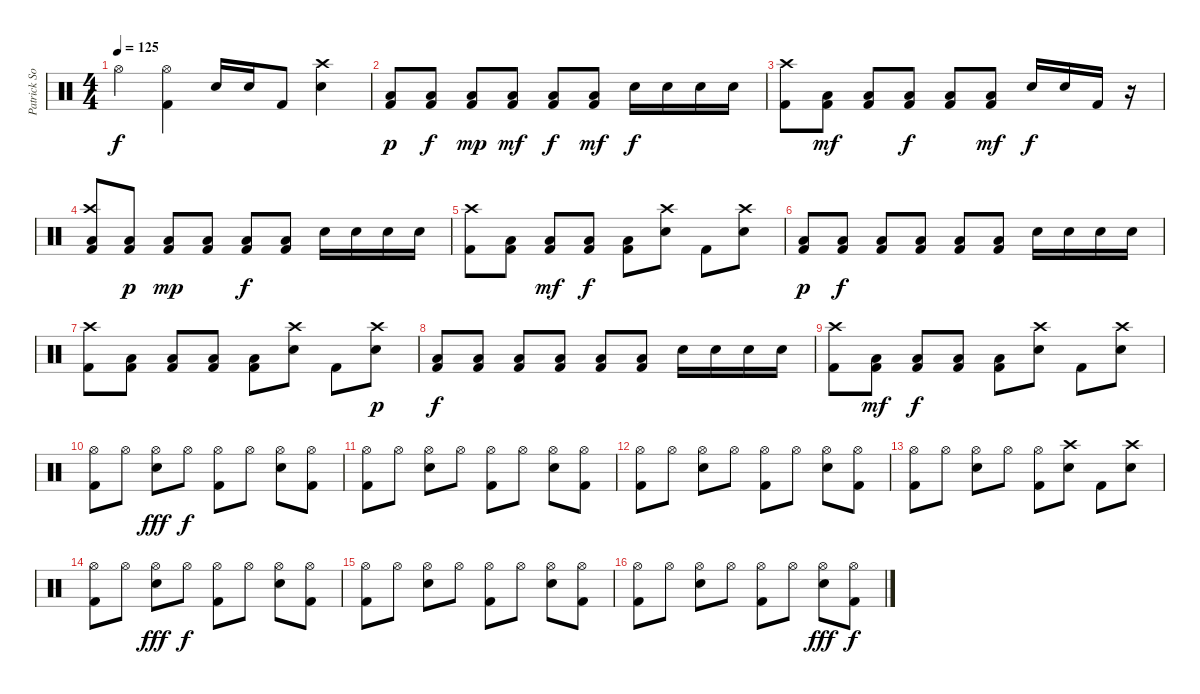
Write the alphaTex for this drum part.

\track ("Patrick Soria" "Patrick So") {instrument percussion}
\staff {score}
\articulation defaults
\ts (4 4)
\tempo 125
\clef neutral
\ks c "Hi-Hat (open)".4{dy f}
("Hi-Hat (open)" "Kick (hit) 2").4 "Snare (hit) 2".16 "Snare (hit) 2".16 "Kick (hit) 2".8 ("Crash high (hit)" "Snare (hit) 2").4 |
("Low Floor Tom (hit)" "Kick (hit) 2").8{dy p} ("Low Floor Tom (hit)" "Kick (hit) 2").8{dy f} ("Low Floor Tom (hit)" "Kick (hit) 2").8{dy mp} ("Low Floor Tom (hit)" "Kick (hit) 2").8{dy mf} ("Low Floor Tom (hit)" "Kick (hit) 2").8{dy f} ("Low Floor Tom (hit)" "Kick (hit) 2").8{dy mf} "Snare (hit) 2".16{dy f} "Snare (hit) 2".16 "Snare (hit) 2".16 "Snare (hit) 2".16 |
("Crash high (hit)" "Kick (hit) 2").8 ("Low Floor Tom (hit)" "Kick (hit) 2").8{dy mf} ("Low Floor Tom (hit)" "Kick (hit) 2").8 ("Low Floor Tom (hit)" "Kick (hit) 2").8{dy f} ("Low Floor Tom (hit)" "Kick (hit) 2").8 ("Low Floor Tom (hit)" "Kick (hit) 2").8{dy mf} "Snare (hit) 2".16{dy f} "Snare (hit) 2".16 "Kick (hit) 2".16 r.16 |
("Low Floor Tom (hit)" "Crash high (hit)" "Kick (hit) 2").8 ("Low Floor Tom (hit)" "Kick (hit) 2").8{dy p} ("Low Floor Tom (hit)" "Kick (hit) 2").8{dy mp} ("Low Floor Tom (hit)" "Kick (hit) 2").8 ("Low Floor Tom (hit)" "Kick (hit) 2").8{dy f} ("Low Floor Tom (hit)" "Kick (hit) 2").8 "Snare (hit) 2".16 "Snare (hit) 2".16 "Snare (hit) 2".16 "Snare (hit) 2".16 |
("Crash high (hit)" "Kick (hit) 2").8 ("Low Floor Tom (hit)" "Kick (hit) 2").8 ("Low Floor Tom (hit)" "Kick (hit) 2").8{dy mf} ("Low Floor Tom (hit)" "Kick (hit) 2").8{dy f} ("Low Floor Tom (hit)" "Kick (hit) 2").8 ("Crash high (hit)" "Snare (hit) 2").8 "Kick (hit) 2".8 ("Crash high (hit)" "Snare (hit) 2").8 |
("Low Floor Tom (hit)" "Kick (hit) 2").8{dy p} ("Low Floor Tom (hit)" "Kick (hit) 2").8{dy f} ("Low Floor Tom (hit)" "Kick (hit) 2").8 ("Low Floor Tom (hit)" "Kick (hit) 2").8 ("Low Floor Tom (hit)" "Kick (hit) 2").8 ("Low Floor Tom (hit)" "Kick (hit) 2").8 "Snare (hit) 2".16 "Snare (hit) 2".16 "Snare (hit) 2".16 "Snare (hit) 2".16 |
("Crash high (hit)" "Kick (hit) 2").8 ("Low Floor Tom (hit)" "Kick (hit) 2").8 ("Low Floor Tom (hit)" "Kick (hit) 2").8 ("Low Floor Tom (hit)" "Kick (hit) 2").8 ("Low Floor Tom (hit)" "Kick (hit) 2").8 ("Crash high (hit)" "Snare (hit) 2").8 "Kick (hit) 2".8 ("Crash high (hit)" "Snare (hit) 2").8{dy p} |
("Low Floor Tom (hit)" "Kick (hit) 2").8{dy f} ("Low Floor Tom (hit)" "Kick (hit) 2").8 ("Low Floor Tom (hit)" "Kick (hit) 2").8 ("Low Floor Tom (hit)" "Kick (hit) 2").8 ("Low Floor Tom (hit)" "Kick (hit) 2").8 ("Low Floor Tom (hit)" "Kick (hit) 2").8 "Snare (hit) 2".16 "Snare (hit) 2".16 "Snare (hit) 2".16 "Snare (hit) 2".16 |
("Crash high (hit)" "Kick (hit) 2").8 ("Low Floor Tom (hit)" "Kick (hit) 2").8{dy mf} ("Low Floor Tom (hit)" "Kick (hit) 2").8{dy f} ("Low Floor Tom (hit)" "Kick (hit) 2").8 ("Low Floor Tom (hit)" "Kick (hit) 2").8 ("Crash high (hit)" "Snare (hit) 2").8 "Kick (hit) 2".8 ("Crash high (hit)" "Snare (hit) 2").8 |
("Hi-Hat (open)" "Kick (hit) 2").8 "Hi-Hat (open)".8 ("Hi-Hat (open)" "Snare (hit) 2").8{dy fff} "Hi-Hat (open)".8{dy f} ("Hi-Hat (open)" "Kick (hit) 2").8 "Hi-Hat (open)".8 ("Hi-Hat (open)" "Snare (hit) 2").8 ("Hi-Hat (open)" "Kick (hit) 2").8 |
("Hi-Hat (open)" "Kick (hit) 2").8 "Hi-Hat (open)".8 ("Hi-Hat (open)" "Snare (hit) 2").8 "Hi-Hat (open)".8 ("Hi-Hat (open)" "Kick (hit) 2").8 "Hi-Hat (open)".8 ("Hi-Hat (open)" "Snare (hit) 2").8 ("Hi-Hat (open)" "Kick (hit) 2").8 |
("Hi-Hat (open)" "Kick (hit) 2").8 "Hi-Hat (open)".8 ("Hi-Hat (open)" "Snare (hit) 2").8 "Hi-Hat (open)".8 ("Hi-Hat (open)" "Kick (hit) 2").8 "Hi-Hat (open)".8 ("Hi-Hat (open)" "Snare (hit) 2").8 ("Hi-Hat (open)" "Kick (hit) 2").8 |
("Hi-Hat (open)" "Kick (hit) 2").8 "Hi-Hat (open)".8 ("Hi-Hat (open)" "Snare (hit) 2").8 "Hi-Hat (open)".8 ("Hi-Hat (open)" "Kick (hit) 2").8 ("Crash high (hit)" "Snare (hit) 2").8 "Kick (hit) 2".8 ("Crash high (hit)" "Snare (hit) 2").8 |
("Hi-Hat (open)" "Kick (hit) 2").8 "Hi-Hat (open)".8 ("Hi-Hat (open)" "Snare (hit) 2").8{dy fff} "Hi-Hat (open)".8{dy f} ("Hi-Hat (open)" "Kick (hit) 2").8 "Hi-Hat (open)".8 ("Hi-Hat (open)" "Snare (hit) 2").8 ("Hi-Hat (open)" "Kick (hit) 2").8 |
("Hi-Hat (open)" "Kick (hit) 2").8 "Hi-Hat (open)".8 ("Hi-Hat (open)" "Snare (hit) 2").8 "Hi-Hat (open)".8 ("Hi-Hat (open)" "Kick (hit) 2").8 "Hi-Hat (open)".8 ("Hi-Hat (open)" "Snare (hit) 2").8 ("Hi-Hat (open)" "Kick (hit) 2").8 |
("Hi-Hat (open)" "Kick (hit) 2").8 "Hi-Hat (open)".8 ("Hi-Hat (open)" "Snare (hit) 2").8 "Hi-Hat (open)".8 ("Hi-Hat (open)" "Kick (hit) 2").8 "Hi-Hat (open)".8 ("Hi-Hat (open)" "Snare (hit) 2").8{dy fff} ("Hi-Hat (open)" "Kick (hit) 2").8{dy f}
